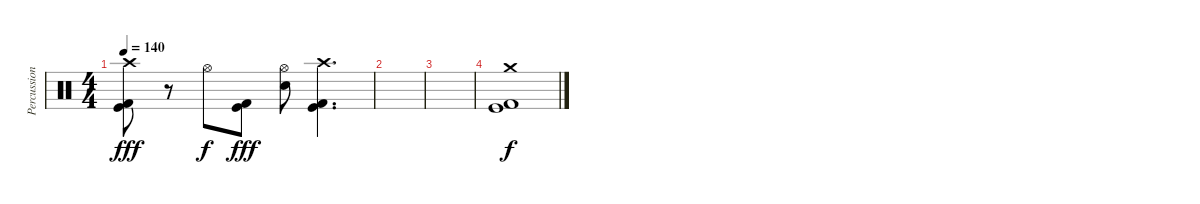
\track ("Percussion" "Percussion") {instrument percussion}
\staff {score}
\articulation defaults
\ts (4 4)
\tempo 140
\clef neutral
\ks c
("Crash high (hit)" "Kick (hit)" "Kick (hit) 2").8{dy fff} r.8 "Hi-Hat (open)".8{dy f} ("Kick (hit)" "Kick (hit) 2").8{dy fff} ("Hi-Hat (open)" "Electric Snare (hit)").8 ("Crash high (hit)" "Kick (hit)" "Kick (hit) 2").4{d} |
|
|
("Crash medium (hit)" "Kick (hit)" "Kick (hit) 2").1{dy f}
